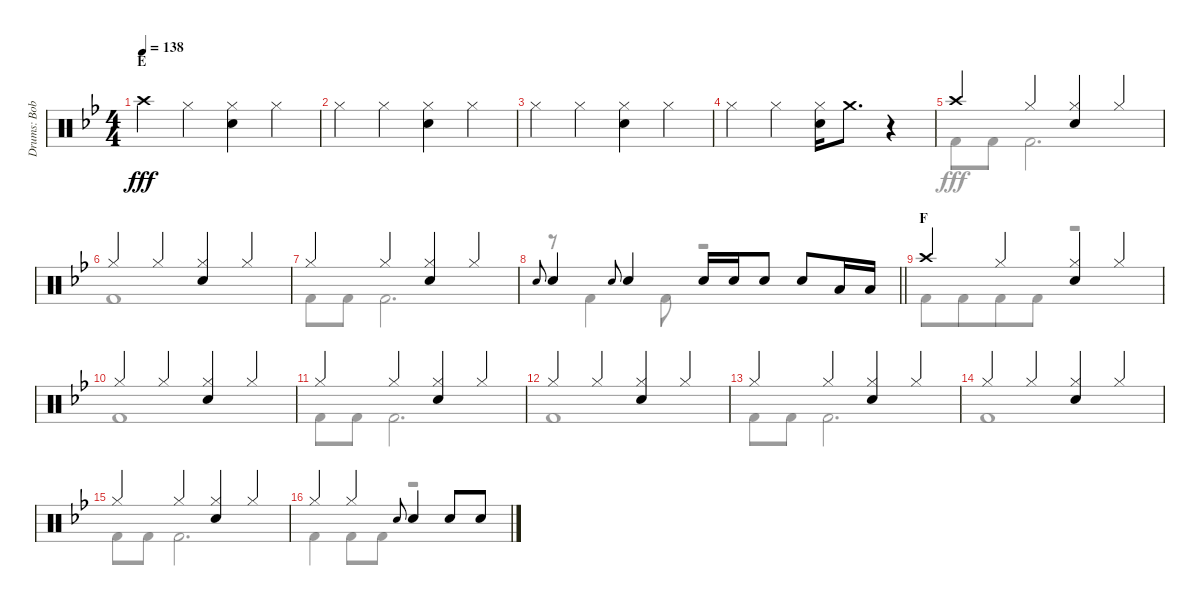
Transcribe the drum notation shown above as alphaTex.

\track ("Drums: Bobby" "Drums: Bob") {instrument percussion}
\staff {score}
\articulation defaults
\voice
\ts (4 4)
\section ("" "E")
\tempo 138
\clef neutral
\ks bb "Crash high (hit)".4{dy fff} "Hi-Hat (closed)".4
("Hi-Hat (closed)" "Snare (hit) 2").4 "Hi-Hat (closed)".4 |
"Hi-Hat (closed)".4 "Hi-Hat (closed)".4 ("Hi-Hat (closed)" "Snare (hit) 2").4 "Hi-Hat (closed)".4 |
"Hi-Hat (closed)".4 "Hi-Hat (closed)".4 ("Hi-Hat (closed)" "Snare (hit) 2").4 "Hi-Hat (closed)".4 |
"Hi-Hat (closed)".4 "Hi-Hat (closed)".4 ("Hi-Hat (closed)" "Snare (hit) 2").16 "Crash medium (hit)".8{d} r.4 |
"Crash high (hit)".4 "Hi-Hat (closed)".4 ("Hi-Hat (closed)" "Snare (hit) 2").4 "Hi-Hat (closed)".4 |
"Hi-Hat (closed)".4 "Hi-Hat (closed)".4 ("Hi-Hat (closed)" "Snare (hit) 2").4 "Hi-Hat (closed)".4 |
"Hi-Hat (closed)".4 "Hi-Hat (closed)".4 ("Hi-Hat (closed)" "Snare (hit) 2").4 "Hi-Hat (closed)".4 |
\barLineRight lightlight "Electric Snare (hit)".8{gr onbeat} "Snare (hit) 2".4 "Electric Snare (hit)".8{gr onbeat} "Snare (hit) 2".4 "Snare (hit) 2".16 "Snare (hit) 2".16 "Snare (hit) 2".8 "Snare (hit) 2".8 "Low Tom (hit)".16 "Low Tom (hit)".16
|
\section ("" "F")
"Crash high (hit)".4 "Hi-Hat (closed)".4 ("Hi-Hat (closed)" "Snare (hit) 2").4 "Hi-Hat (closed)".4 |
"Hi-Hat (closed)".4 "Hi-Hat (closed)".4 ("Hi-Hat (closed)" "Snare (hit) 2").4 "Hi-Hat (closed)".4 |
"Hi-Hat (closed)".4 "Hi-Hat (closed)".4 ("Hi-Hat (closed)" "Snare (hit) 2").4 "Hi-Hat (closed)".4 |
"Hi-Hat (closed)".4 "Hi-Hat (closed)".4 ("Hi-Hat (closed)" "Snare (hit) 2").4 "Hi-Hat (closed)".4 |
"Hi-Hat (closed)".4 "Hi-Hat (closed)".4 ("Hi-Hat (closed)" "Snare (hit) 2").4 "Hi-Hat (closed)".4 |
"Hi-Hat (closed)".4 "Hi-Hat (closed)".4 ("Hi-Hat (closed)" "Snare (hit) 2").4 "Hi-Hat (closed)".4 |
"Hi-Hat (closed)".4 "Hi-Hat (closed)".4 ("Hi-Hat (closed)" "Snare (hit) 2").4 "Hi-Hat (closed)".4 |
"Hi-Hat (closed)".4 "Hi-Hat (closed)".4 "Electric Snare (hit)".8{gr onbeat} "Snare (hit) 2".4 "Snare (hit) 2".8 "Snare (hit) 2".8
\voice
\clef neutral
\ottava regular
\simile none
\ks bb
|
|
|
|
"Kick (hit) 2".8 "Kick (hit) 2".8 "Kick (hit) 2".2{d} |
"Kick (hit) 2".1 |
"Kick (hit) 2".8 "Kick (hit) 2".8 "Kick (hit) 2".2{d} |
\barLineRight lightlight
r.8 "Kick (hit) 2".4 "Kick (hit) 2".8 r.2 |
"Kick (hit) 2".8 "Kick (hit) 2".8{beam merge} "Kick (hit) 2".8 "Kick (hit) 2".8 r.2 |
"Kick (hit) 2".1 |
"Kick (hit) 2".8 "Kick (hit) 2".8 "Kick (hit) 2".2{d} |
"Kick (hit) 2".1 |
"Kick (hit) 2".8 "Kick (hit) 2".8 "Kick (hit) 2".2{d} |
"Kick (hit) 2".1 |
"Kick (hit) 2".8 "Kick (hit) 2".8 "Kick (hit) 2".2{d} |
"Kick (hit) 2".4 "Kick (hit) 2".8 "Kick (hit) 2".8 r.2
